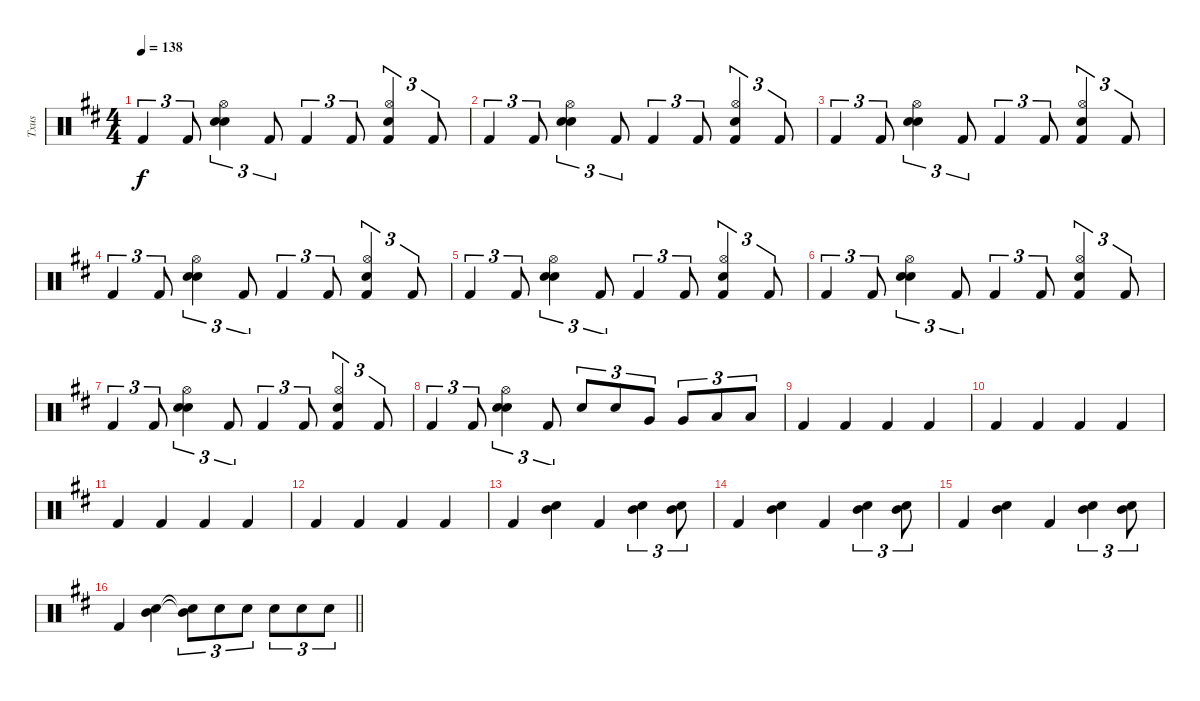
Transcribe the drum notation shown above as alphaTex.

\track ("Txus" "Txus") {instrument percussion}
\staff {score}
\articulation defaults
\ts (4 4)
\tempo 138
\clef neutral
\ks d "Kick (hit) 2".4{tu (3 2) dy f} "Kick (hit) 2".8{tu (3 2)}
("Hi-Hat (open)" "Electric Snare (hit)" "Snare (hit) 2").4{tu (3 2)} "Kick (hit) 2".8{tu (3 2)} "Kick (hit) 2".4{tu (3 2)} "Kick (hit) 2".8{tu (3 2)} ("Hi-Hat (open)" "Electric Snare (hit)" "Kick (hit) 2").4{tu (3 2)} "Kick (hit) 2".8{tu (3 2)} |
"Kick (hit) 2".4{tu (3 2)} "Kick (hit) 2".8{tu (3 2)} ("Hi-Hat (open)" "Electric Snare (hit)" "Snare (hit) 2").4{tu (3 2)} "Kick (hit) 2".8{tu (3 2)} "Kick (hit) 2".4{tu (3 2)} "Kick (hit) 2".8{tu (3 2)} ("Hi-Hat (open)" "Electric Snare (hit)" "Kick (hit) 2").4{tu (3 2)} "Kick (hit) 2".8{tu (3 2)} |
"Kick (hit) 2".4{tu (3 2)} "Kick (hit) 2".8{tu (3 2)} ("Hi-Hat (open)" "Electric Snare (hit)" "Snare (hit) 2").4{tu (3 2)} "Kick (hit) 2".8{tu (3 2)} "Kick (hit) 2".4{tu (3 2)} "Kick (hit) 2".8{tu (3 2)} ("Hi-Hat (open)" "Electric Snare (hit)" "Kick (hit) 2").4{tu (3 2)} "Kick (hit) 2".8{tu (3 2)} |
"Kick (hit) 2".4{tu (3 2)} "Kick (hit) 2".8{tu (3 2)} ("Hi-Hat (open)" "Electric Snare (hit)" "Snare (hit) 2").4{tu (3 2)} "Kick (hit) 2".8{tu (3 2)} "Kick (hit) 2".4{tu (3 2)} "Kick (hit) 2".8{tu (3 2)} ("Hi-Hat (open)" "Electric Snare (hit)" "Kick (hit) 2").4{tu (3 2)} "Kick (hit) 2".8{tu (3 2)} |
"Kick (hit) 2".4{tu (3 2)} "Kick (hit) 2".8{tu (3 2)} ("Hi-Hat (open)" "Electric Snare (hit)" "Snare (hit) 2").4{tu (3 2)} "Kick (hit) 2".8{tu (3 2)} "Kick (hit) 2".4{tu (3 2)} "Kick (hit) 2".8{tu (3 2)} ("Hi-Hat (open)" "Electric Snare (hit)" "Kick (hit) 2").4{tu (3 2)} "Kick (hit) 2".8{tu (3 2)} |
"Kick (hit) 2".4{tu (3 2)} "Kick (hit) 2".8{tu (3 2)} ("Hi-Hat (open)" "Electric Snare (hit)" "Snare (hit) 2").4{tu (3 2)} "Kick (hit) 2".8{tu (3 2)} "Kick (hit) 2".4{tu (3 2)} "Kick (hit) 2".8{tu (3 2)} ("Hi-Hat (open)" "Electric Snare (hit)" "Kick (hit) 2").4{tu (3 2)} "Kick (hit) 2".8{tu (3 2)} |
"Kick (hit) 2".4{tu (3 2)} "Kick (hit) 2".8{tu (3 2)} ("Hi-Hat (open)" "Electric Snare (hit)" "Snare (hit) 2").4{tu (3 2)} "Kick (hit) 2".8{tu (3 2)} "Kick (hit) 2".4{tu (3 2)} "Kick (hit) 2".8{tu (3 2)} ("Hi-Hat (open)" "Electric Snare (hit)" "Kick (hit) 2").4{tu (3 2)} "Kick (hit) 2".8{tu (3 2)} |
"Kick (hit) 2".4{tu (3 2)} "Kick (hit) 2".8{tu (3 2)} ("Hi-Hat (open)" "Electric Snare (hit)" "Snare (hit) 2").4{tu (3 2)} "Kick (hit) 2".8{tu (3 2)} "Electric Snare (hit)".8{tu (3 2)} "Electric Snare (hit)".8{tu (3 2)} "Very Low Tom (hit)".8{tu (3 2)} "Very Low Tom (hit)".8{tu (3 2)} "Low Floor Tom (hit)".8{tu (3 2)} "Low Floor Tom (hit)".8{tu (3 2)} |
"Kick (hit) 2".4 "Kick (hit) 2".4 "Kick (hit) 2".4 "Kick (hit) 2".4 |
"Kick (hit) 2".4 "Kick (hit) 2".4 "Kick (hit) 2".4 "Kick (hit) 2".4 |
"Kick (hit) 2".4 "Kick (hit) 2".4 "Kick (hit) 2".4 "Kick (hit) 2".4 |
"Kick (hit) 2".4 "Kick (hit) 2".4 "Kick (hit) 2".4 "Kick (hit) 2".4 |
"Kick (hit) 2".4 ("Mid Tom (hit)" "Snare (hit) 2").4 "Kick (hit) 2".4 ("Mid Tom (hit)" "Snare (hit) 2").4{tu (3 2)} ("Mid Tom (hit)" "Snare (hit) 2").8{tu (3 2)} |
"Kick (hit) 2".4 ("Mid Tom (hit)" "Snare (hit) 2").4 "Kick (hit) 2".4 ("Mid Tom (hit)" "Snare (hit) 2").4{tu (3 2)} ("Mid Tom (hit)" "Snare (hit) 2").8{tu (3 2)} |
"Kick (hit) 2".4 ("Mid Tom (hit)" "Snare (hit) 2").4 "Kick (hit) 2".4 ("Mid Tom (hit)" "Snare (hit) 2").4{tu (3 2)} ("Mid Tom (hit)" "Snare (hit) 2").8{tu (3 2)} |
\barLineRight lightlight "Kick (hit) 2".4
("Mid Tom (hit)" "Snare (hit) 2").4 ("Mid Tom (hit)"{t} "Snare (hit)"{t}).8{tu (3 2)} "Electric Snare (hit)".8{tu (3 2)} "Electric Snare (hit)".8{tu (3 2)} "Electric Snare (hit)".8{tu (3 2)} "Electric Snare (hit)".8{tu (3 2)} "Electric Snare (hit)".8{tu (3 2)}
